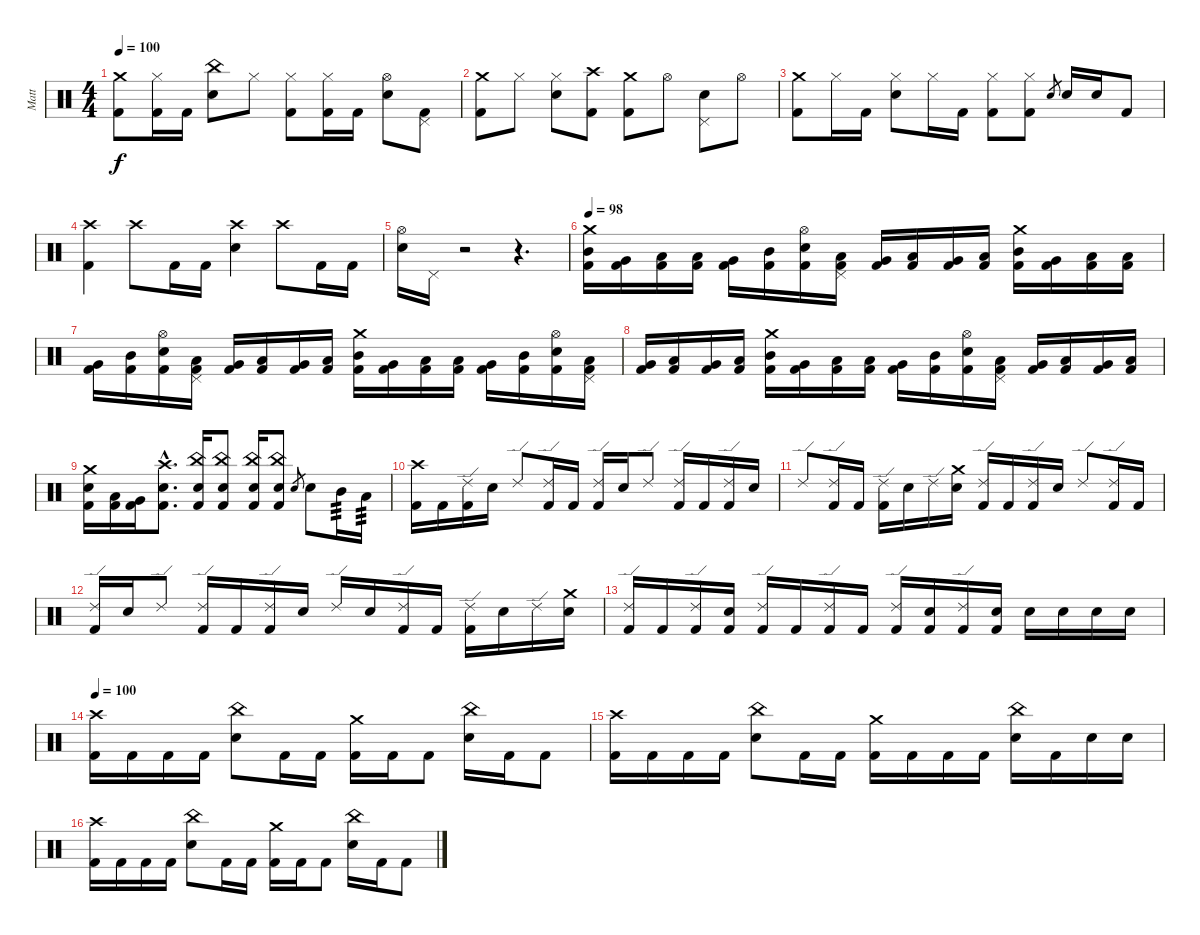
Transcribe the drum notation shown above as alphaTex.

\track ("Matt" "Matt") {instrument percussion}
\staff {score}
\articulation defaults
\ts (4 4)
\tempo 100
\clef neutral
\ks c
("Crash medium (hit)" "Kick (hit) 2").8{dy f} ("Hi-Hat (closed)" "Kick (hit) 2").16 "Kick (hit) 2".16 ("China (hit)" "Electric Snare (hit)").8 "Hi-Hat (closed)".8 ("Hi-Hat (closed)" "Kick (hit) 2").8 ("Hi-Hat (closed)" "Kick (hit) 2").16 "Kick (hit) 2".16 ("Hi-Hat (open)" "Electric Snare (hit)").8 ("Pedal Hi-Hat (hit)" "Kick (hit) 2").8 |
("Crash medium (hit)" "Kick (hit) 2").8 "Hi-Hat (closed)".8 ("Hi-Hat (closed)" "Electric Snare (hit)").8 ("Crash high (hit)" "Kick (hit) 2").8 ("Crash medium (hit)" "Kick (hit) 2").8 "Hi-Hat (open)".8 ("Pedal Hi-Hat (hit)" "Electric Snare (hit)").8 "Hi-Hat (open)".8 |
("Crash medium (hit)" "Kick (hit) 2").8 "Hi-Hat (closed)".16 "Kick (hit) 2".16 ("Hi-Hat (closed)" "Electric Snare (hit)").8 "Hi-Hat (closed)".16 "Kick (hit) 2".16 ("Hi-Hat (closed)" "Kick (hit) 2").8 ("Hi-Hat (closed)" "Kick (hit) 2").8 "Electric Snare (hit)".8{gr} "Electric Snare (hit)".16 "Electric Snare (hit)".16 "Kick (hit) 2".8 |
("Crash high (hit)" "Kick (hit) 2").4 "Crash high (hit)".8 "Kick (hit) 2".16 "Kick (hit) 2".16 ("Crash high (hit)" "Electric Snare (hit)").4 "Crash high (hit)".8 "Kick (hit) 2".16 "Kick (hit) 2".16 |
("Hi-Hat (open)" "Electric Snare (hit)").16 "Pedal Hi-Hat (hit)".16 r.2 r.4{d} |
\tempo 98
("Crash medium (hit)" "Mid Tom (hit)" "Kick (hit) 2").16 ("Very Low Tom (hit)" "Kick (hit) 2").16 ("Low Floor Tom (hit)" "Kick (hit) 2").16 ("Low Tom (hit)" "Kick (hit) 2").16 ("Very Low Tom (hit)" "Kick (hit) 2").16 ("Mid Tom (hit)" "Kick (hit) 2").16 ("Hi-Hat (open)" "Electric Snare (hit)" "Kick (hit) 2").16 ("Pedal Hi-Hat (hit)" "Low Tom (hit)" "Kick (hit) 2").16 ("Very Low Tom (hit)" "Kick (hit) 2").16 ("Low Floor Tom (hit)" "Kick (hit) 2").16 ("Very Low Tom (hit)" "Kick (hit) 2").16 ("Low Tom (hit)" "Kick (hit) 2").16 ("Crash medium (hit)" "Mid Tom (hit)" "Kick (hit) 2").16 ("Very Low Tom (hit)" "Kick (hit) 2").16 ("Low Floor Tom (hit)" "Kick (hit) 2").16 ("Low Tom (hit)" "Kick (hit) 2").16 |
("Very Low Tom (hit)" "Kick (hit) 2").16 ("Mid Tom (hit)" "Kick (hit) 2").16 ("Hi-Hat (open)" "Electric Snare (hit)" "Kick (hit) 2").16 ("Pedal Hi-Hat (hit)" "Low Tom (hit)" "Kick (hit) 2").16 ("Very Low Tom (hit)" "Kick (hit) 2").16 ("Low Floor Tom (hit)" "Kick (hit) 2").16 ("Very Low Tom (hit)" "Kick (hit) 2").16 ("Low Tom (hit)" "Kick (hit) 2").16 ("Crash medium (hit)" "Mid Tom (hit)" "Kick (hit) 2").16 ("Very Low Tom (hit)" "Kick (hit) 2").16 ("Low Floor Tom (hit)" "Kick (hit) 2").16 ("Low Tom (hit)" "Kick (hit) 2").16 ("Very Low Tom (hit)" "Kick (hit) 2").16 ("Mid Tom (hit)" "Kick (hit) 2").16 ("Hi-Hat (open)" "Electric Snare (hit)" "Kick (hit) 2").16 ("Pedal Hi-Hat (hit)" "Low Tom (hit)" "Kick (hit) 2").16 |
("Very Low Tom (hit)" "Kick (hit) 2").16 ("Low Floor Tom (hit)" "Kick (hit) 2").16 ("Very Low Tom (hit)" "Kick (hit) 2").16 ("Low Tom (hit)" "Kick (hit) 2").16 ("Crash medium (hit)" "Mid Tom (hit)" "Kick (hit) 2").16 ("Very Low Tom (hit)" "Kick (hit) 2").16 ("Low Floor Tom (hit)" "Kick (hit) 2").16 ("Low Tom (hit)" "Kick (hit) 2").16 ("Very Low Tom (hit)" "Kick (hit) 2").16 ("Mid Tom (hit)" "Kick (hit) 2").16 ("Hi-Hat (open)" "Electric Snare (hit)" "Kick (hit) 2").16 ("Pedal Hi-Hat (hit)" "Low Tom (hit)" "Kick (hit) 2").16 ("Very Low Tom (hit)" "Kick (hit) 2").16 ("Low Floor Tom (hit)" "Kick (hit) 2").16 ("Very Low Tom (hit)" "Kick (hit) 2").16 ("Low Tom (hit)" "Kick (hit) 2").16 |
("Crash medium (hit)" "Electric Snare (hit)" "Kick (hit) 2").16 ("Low Tom (hit)" "Kick (hit) 2").16 ("Very Low Tom (hit)" "Kick (hit) 2").16 ("Crash high (hit)"{hac} "Electric Snare (hit)"{hac} "Kick (hit) 2"{hac}).8{d} ("China (hit)" "Electric Snare (hit)" "Kick (hit) 2").16 ("China (hit)" "Electric Snare (hit)" "Kick (hit) 2").8 ("China (hit)" "Electric Snare (hit)" "Kick (hit) 2").16 ("China (hit)" "Electric Snare (hit)" "Kick (hit) 2").8 "Electric Snare (hit)".8{gr} "Electric Snare (hit)".8 "Mid Tom (hit)".16{tp 3} "Low Tom (hit)".16{tp 3} |
("Crash high (hit)" "Kick (hit) 2").16 "Kick (hit) 2".16 ("Ride (edge) 2" "Kick (hit) 2").16 "Electric Snare (hit)".16 "Ride (edge) 2".8 ("Ride (edge) 2" "Kick (hit) 2").16 "Kick (hit) 2".16 ("Ride (edge) 2" "Kick (hit) 2").16 "Electric Snare (hit)".16 "Ride (edge) 2".8 ("Ride (edge) 2" "Kick (hit) 2").16 "Kick (hit) 2".16 ("Ride (edge) 2" "Kick (hit) 2").16 "Electric Snare (hit)".16 |
"Ride (edge) 2".8 ("Ride (edge) 2" "Kick (hit) 2").16 "Kick (hit) 2".16 ("Ride (edge) 2" "Kick (hit) 2").16 "Electric Snare (hit)".16 "Ride (edge) 2".16 ("Crash medium (hit)" "Electric Snare (hit)").16 ("Ride (edge) 2" "Kick (hit) 2").16 "Kick (hit) 2".16 ("Ride (edge) 2" "Kick (hit) 2").16 "Electric Snare (hit)".16 "Ride (edge) 2".8 ("Ride (edge) 2" "Kick (hit) 2").16 "Kick (hit) 2".16 |
("Ride (edge) 2" "Kick (hit) 2").16 "Electric Snare (hit)".16 "Ride (edge) 2".8 ("Ride (edge) 2" "Kick (hit) 2").16 "Kick (hit) 2".16 ("Ride (edge) 2" "Kick (hit) 2").16 "Electric Snare (hit)".16 "Ride (edge) 2".16 "Electric Snare (hit)".16 ("Ride (edge) 2" "Kick (hit) 2").16 "Kick (hit) 2".16 ("Ride (edge) 2" "Kick (hit) 2").16 "Electric Snare (hit)".16 "Ride (edge) 2".16 ("Crash medium (hit)" "Electric Snare (hit)").16 |
("Ride (edge) 2" "Kick (hit) 2").16 "Kick (hit) 2".16 ("Ride (edge) 2" "Kick (hit) 2").16 ("Electric Snare (hit)" "Kick (hit) 2").16 ("Ride (edge) 2" "Kick (hit) 2").16 "Kick (hit) 2".16 ("Ride (edge) 2" "Kick (hit) 2").16 "Kick (hit) 2".16 ("Ride (edge) 2" "Kick (hit) 2").16 ("Electric Snare (hit)" "Kick (hit) 2").16 ("Ride (edge) 2" "Kick (hit) 2").16 ("Electric Snare (hit)" "Kick (hit) 2").16 "Electric Snare (hit)".16 "Electric Snare (hit)".16 "Electric Snare (hit)".16 "Electric Snare (hit)".16 |
\tempo 100
("Crash high (hit)" "Kick (hit) 2").16 "Kick (hit) 2".16 "Kick (hit) 2".16 "Kick (hit) 2".16 ("China (hit)" "Electric Snare (hit)").8 "Kick (hit) 2".16 "Kick (hit) 2".16 ("Crash medium (hit)" "Kick (hit) 2").16 "Kick (hit) 2".16 "Kick (hit) 2".8 ("China (hit)" "Electric Snare (hit)").16 "Kick (hit) 2".16 "Kick (hit) 2".8 |
("Crash high (hit)" "Kick (hit) 2").16 "Kick (hit) 2".16 "Kick (hit) 2".16 "Kick (hit) 2".16 ("China (hit)" "Electric Snare (hit)").8 "Kick (hit) 2".16 "Kick (hit) 2".16 ("Crash medium (hit)" "Kick (hit) 2").16 "Kick (hit) 2".16 "Kick (hit) 2".16 "Kick (hit) 2".16 ("China (hit)" "Electric Snare (hit)").16 "Kick (hit) 2".16 "Electric Snare (hit)".16 "Electric Snare (hit)".16 |
("Crash high (hit)" "Kick (hit) 2").16 "Kick (hit) 2".16 "Kick (hit) 2".16 "Kick (hit) 2".16 ("China (hit)" "Electric Snare (hit)").8 "Kick (hit) 2".16 "Kick (hit) 2".16 ("Crash medium (hit)" "Kick (hit) 2").16 "Kick (hit) 2".16 "Kick (hit) 2".8 ("China (hit)" "Electric Snare (hit)").16 "Kick (hit) 2".16 "Kick (hit) 2".8
